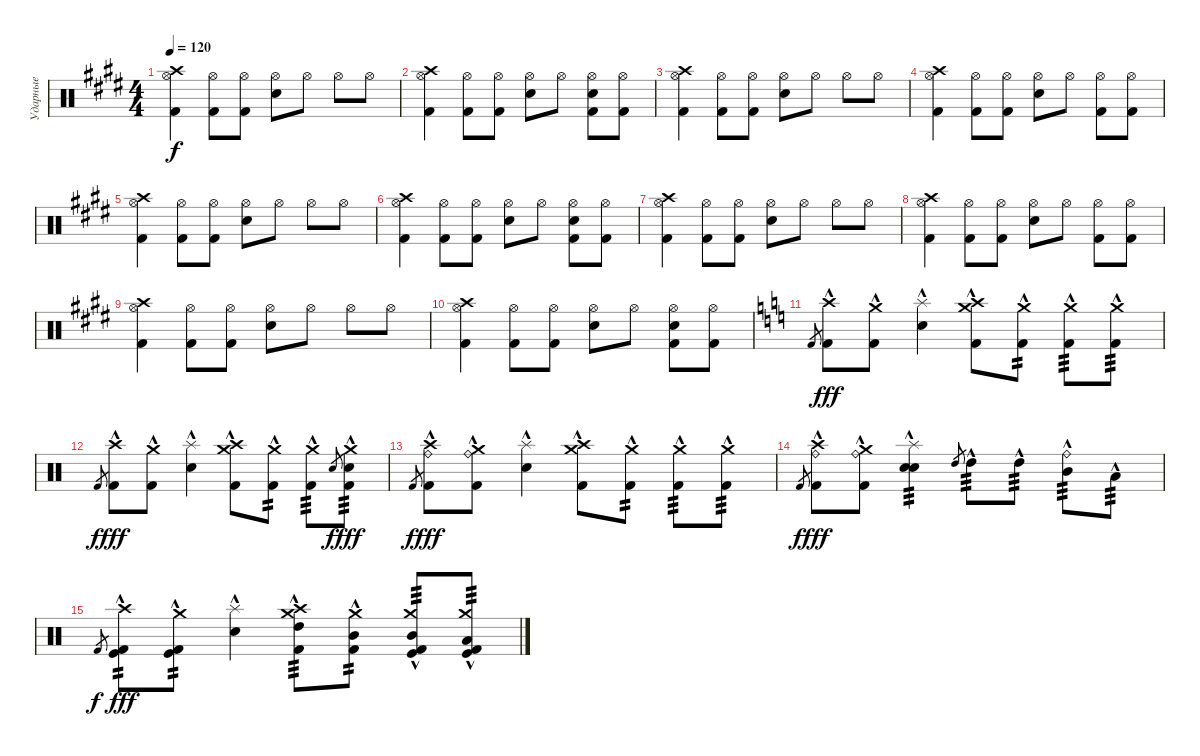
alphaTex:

\track ("Ударные" "Ударные") {instrument percussion}
\staff {score}
\articulation defaults
\ts (4 4)
\tempo 120
\clef neutral
\ks c#minor
("Crash high (hit)" "Hi-Hat (open)" "Kick (hit) 2").4{dy f} ("Hi-Hat (open)" "Kick (hit) 2").8 ("Hi-Hat (open)" "Kick (hit) 2").8 ("Hi-Hat (open)" "Electric Snare (hit)").8 "Hi-Hat (open)".8 "Hi-Hat (open)".8 "Hi-Hat (open)".8 |
("Crash high (hit)" "Hi-Hat (open)" "Kick (hit) 2").4 ("Hi-Hat (open)" "Kick (hit) 2").8 ("Hi-Hat (open)" "Kick (hit) 2").8 ("Hi-Hat (open)" "Electric Snare (hit)").8 "Hi-Hat (open)".8 ("Hi-Hat (open)" "Electric Snare (hit)" "Kick (hit) 2").8 ("Hi-Hat (open)" "Kick (hit) 2").8 |
("Crash high (hit)" "Hi-Hat (open)" "Kick (hit) 2").4 ("Hi-Hat (open)" "Kick (hit) 2").8 ("Hi-Hat (open)" "Kick (hit) 2").8 ("Hi-Hat (open)" "Electric Snare (hit)").8 "Hi-Hat (open)".8 "Hi-Hat (open)".8 "Hi-Hat (open)".8 |
("Crash high (hit)" "Hi-Hat (open)" "Kick (hit) 2").4 ("Hi-Hat (open)" "Kick (hit) 2").8 ("Hi-Hat (open)" "Kick (hit) 2").8 ("Hi-Hat (open)" "Electric Snare (hit)").8 "Hi-Hat (open)".8 ("Hi-Hat (open)" "Kick (hit) 2").8 ("Hi-Hat (open)" "Kick (hit) 2").8 |
("Crash high (hit)" "Hi-Hat (open)" "Kick (hit) 2").4 ("Hi-Hat (open)" "Kick (hit) 2").8 ("Hi-Hat (open)" "Kick (hit) 2").8 ("Hi-Hat (open)" "Electric Snare (hit)").8 "Hi-Hat (open)".8 "Hi-Hat (open)".8 "Hi-Hat (open)".8 |
("Crash high (hit)" "Hi-Hat (open)" "Kick (hit) 2").4 ("Hi-Hat (open)" "Kick (hit) 2").8 ("Hi-Hat (open)" "Kick (hit) 2").8 ("Hi-Hat (open)" "Electric Snare (hit)").8 "Hi-Hat (open)".8 ("Hi-Hat (open)" "Electric Snare (hit)" "Kick (hit) 2").8 ("Hi-Hat (open)" "Kick (hit) 2").8 |
("Crash high (hit)" "Hi-Hat (open)" "Kick (hit) 2").4 ("Hi-Hat (open)" "Kick (hit) 2").8 ("Hi-Hat (open)" "Kick (hit) 2").8 ("Hi-Hat (open)" "Electric Snare (hit)").8 "Hi-Hat (open)".8 "Hi-Hat (open)".8 "Hi-Hat (open)".8 |
("Crash high (hit)" "Hi-Hat (open)" "Kick (hit) 2").4 ("Hi-Hat (open)" "Kick (hit) 2").8 ("Hi-Hat (open)" "Kick (hit) 2").8 ("Hi-Hat (open)" "Electric Snare (hit)").8 "Hi-Hat (open)".8 ("Hi-Hat (open)" "Kick (hit) 2").8 ("Hi-Hat (open)" "Kick (hit) 2").8 |
("Crash high (hit)" "Hi-Hat (open)" "Kick (hit) 2").4 ("Hi-Hat (open)" "Kick (hit) 2").8 ("Hi-Hat (open)" "Kick (hit) 2").8 ("Hi-Hat (open)" "Electric Snare (hit)").8 "Hi-Hat (open)".8 "Hi-Hat (open)".8 "Hi-Hat (open)".8 |
("Crash high (hit)" "Hi-Hat (open)" "Kick (hit) 2").4 ("Hi-Hat (open)" "Kick (hit) 2").8 ("Hi-Hat (open)" "Kick (hit) 2").8 ("Hi-Hat (open)" "Electric Snare (hit)").8 "Hi-Hat (open)".8 ("Hi-Hat (open)" "Electric Snare (hit)" "Kick (hit) 2").8 ("Hi-Hat (open)" "Kick (hit) 2").8 |
\ks c "Kick (hit) 2".8{gr}
("Crash high (hit)"{hac} "Kick (hit) 2"{hac}).8{dy fff} ("Crash medium (hit)"{hac} "Kick (hit) 2"{hac}).8 ("Splash (hit)"{hac} "Electric Snare (hit)"{hac}).4 ("Crash high (hit)"{hac} "Crash medium (hit)"{hac} "Kick (hit) 2"{hac}).8 ("Crash medium (hit)"{hac} "Kick (hit) 2"{hac}).8{tp 2} ("Crash medium (hit)"{hac} "Kick (hit) 2"{hac}).8{tp 3} ("Crash medium (hit)"{hac} "Kick (hit) 2"{hac}).8{tp 3} |
"Kick (hit) 2".8{gr dy f} ("Crash high (hit)"{hac} "Kick (hit) 2"{hac}).8{dy fff} ("Crash medium (hit)"{hac} "Kick (hit) 2"{hac}).8 ("Splash (hit)"{hac} "Electric Snare (hit)"{hac}).4 ("Crash high (hit)"{hac} "Crash medium (hit)"{hac} "Kick (hit) 2"{hac}).8 ("Crash medium (hit)"{hac} "Kick (hit) 2"{hac}).8{tp 2} ("Crash medium (hit)"{hac} "Kick (hit) 2"{hac}).8{tp 3} "Electric Snare (hit)".8{gr dy f} ("Electric Snare (hit)"{hac} "Crash medium (hit)"{hac} "Kick (hit) 2"{hac}).8{tp 3 dy fff} |
"Kick (hit) 2".8{gr dy f} ("Ride (bell)"{hac} "Crash high (hit)"{hac} "Kick (hit) 2"{hac}).8{dy fff} ("Ride (bell)"{hac} "Crash medium (hit)"{hac} "Kick (hit) 2"{hac}).8 ("Splash (hit)"{hac} "Electric Snare (hit)"{hac}).4 ("Crash high (hit)"{hac} "Crash medium (hit)"{hac} "Kick (hit) 2"{hac}).8 ("Crash medium (hit)"{hac} "Kick (hit) 2"{hac}).8{tp 2} ("Crash medium (hit)"{hac} "Kick (hit) 2"{hac}).8{tp 3} ("Crash medium (hit)"{hac} "Kick (hit) 2"{hac}).8{tp 3} |
"Kick (hit) 2".8{gr dy f} ("Ride (bell)"{hac} "Crash high (hit)"{hac} "Kick (hit) 2"{hac}).8{dy fff} ("Ride (bell)"{hac} "Crash medium (hit)"{hac} "Kick (hit) 2"{hac}).8 ("Splash (hit)"{hac} "Electric Snare (hit)"{hac} "Electric Snare (hit)"{hac}).4{tp 3} "High Tom (hit)".8{gr} "High Tom (hit)"{hac}.8{tp 3} "High Tom (hit)"{hac}.8{tp 3} ("Ride (bell)" "Mid Tom (hit)"{hac}).8{tp 3} "Low Tom (hit)"{hac}.8{tp 3} |
"Kick (hit) 2".8{gr dy f} ("Kick (hit)" "Crash high (hit)"{hac} "Kick (hit) 2"{hac}).8{tp 2 dy fff} ("Kick (hit)" "Crash medium (hit)"{hac} "Kick (hit) 2"{hac}).8{tp 2} ("Splash (hit)"{hac} "Electric Snare (hit)"{hac}).4 ("High Tom (hit)" "Crash high (hit)"{hac} "Crash medium (hit)"{hac} "Kick (hit) 2"{hac}).8{tp 3} ("Mid Tom (hit)" "Crash medium (hit)"{hac} "Kick (hit) 2"{hac}).8{tp 2} ("Mid Tom (hit)" "Kick (hit)" "Crash medium (hit)"{hac} "Kick (hit) 2"{hac}).8{tp 3} ("Low Tom (hit)" "Kick (hit)" "Crash medium (hit)"{hac} "Kick (hit) 2"{hac}).8{tp 3}
